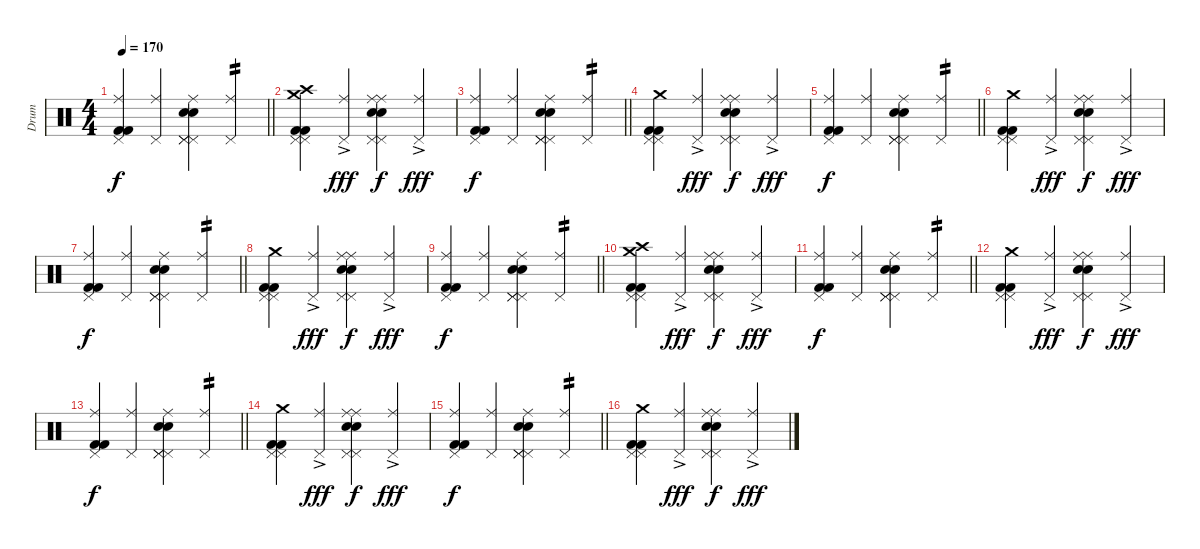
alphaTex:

\track ("Drum" "Drum") {instrument percussion}
\staff {score}
\articulation defaults
\ts (4 4)
\tempo 170
\clef neutral
\barLineRight lightlight
\ks c
("Kick (hit) 2" "Kick (hit) 2" "Ride (middle)" "Pedal Hi-Hat (hit)").4{dy f} ("Ride (middle)" "Pedal Hi-Hat (hit)").4 ("Electric Snare (hit)" "Electric Snare (hit)" "Pedal Hi-Hat (hit)" "Pedal Hi-Hat (hit)" "Ride (middle)" "Pedal Hi-Hat (hit)").4 ("Ride (middle)" "Pedal Hi-Hat (hit)").4{tp 2} |
("Crash high (hit)" "Crash medium (hit)" "Kick (hit) 2" "Kick (hit) 2" "Pedal Hi-Hat (hit)" "Pedal Hi-Hat (hit)").4 ("Ride (middle)"{ac} "Pedal Hi-Hat (hit)"{ac}).4{dy fff} ("Electric Snare (hit)" "Electric Snare (hit)" "Pedal Hi-Hat (hit)" "Pedal Hi-Hat (hit)" "Ride (middle)" "Ride (middle)").4{dy f} ("Ride (middle)"{ac} "Pedal Hi-Hat (hit)"{ac}).4{dy fff} |
\barLineRight lightlight
("Kick (hit) 2" "Kick (hit) 2" "Ride (middle)" "Pedal Hi-Hat (hit)").4{dy f} ("Ride (middle)" "Pedal Hi-Hat (hit)").4 ("Electric Snare (hit)" "Electric Snare (hit)" "Pedal Hi-Hat (hit)" "Pedal Hi-Hat (hit)" "Ride (middle)" "Pedal Hi-Hat (hit)").4 ("Ride (middle)" "Pedal Hi-Hat (hit)").4{tp 2} |
("Crash medium (hit)" "Kick (hit) 2" "Kick (hit) 2" "Pedal Hi-Hat (hit)" "Pedal Hi-Hat (hit)").4 ("Ride (middle)"{ac} "Pedal Hi-Hat (hit)"{ac}).4{dy fff} ("Electric Snare (hit)" "Electric Snare (hit)" "Pedal Hi-Hat (hit)" "Pedal Hi-Hat (hit)" "Ride (middle)" "Ride (middle)").4{dy f} ("Ride (middle)"{ac} "Pedal Hi-Hat (hit)"{ac}).4{dy fff} |
\barLineRight lightlight
("Kick (hit) 2" "Kick (hit) 2" "Ride (middle)" "Pedal Hi-Hat (hit)").4{dy f} ("Ride (middle)" "Pedal Hi-Hat (hit)").4 ("Electric Snare (hit)" "Electric Snare (hit)" "Pedal Hi-Hat (hit)" "Pedal Hi-Hat (hit)" "Ride (middle)" "Pedal Hi-Hat (hit)").4 ("Ride (middle)" "Pedal Hi-Hat (hit)").4{tp 2} |
("Crash medium (hit)" "Kick (hit) 2" "Kick (hit) 2" "Pedal Hi-Hat (hit)" "Pedal Hi-Hat (hit)").4 ("Ride (middle)"{ac} "Pedal Hi-Hat (hit)"{ac}).4{dy fff} ("Electric Snare (hit)" "Electric Snare (hit)" "Pedal Hi-Hat (hit)" "Pedal Hi-Hat (hit)" "Ride (middle)" "Ride (middle)").4{dy f} ("Ride (middle)"{ac} "Pedal Hi-Hat (hit)"{ac}).4{dy fff} |
\barLineRight lightlight
("Kick (hit) 2" "Kick (hit) 2" "Ride (middle)" "Pedal Hi-Hat (hit)").4{dy f} ("Ride (middle)" "Pedal Hi-Hat (hit)").4 ("Electric Snare (hit)" "Electric Snare (hit)" "Pedal Hi-Hat (hit)" "Pedal Hi-Hat (hit)" "Ride (middle)" "Pedal Hi-Hat (hit)").4 ("Ride (middle)" "Pedal Hi-Hat (hit)").4{tp 2} |
("Crash medium (hit)" "Kick (hit) 2" "Kick (hit) 2" "Pedal Hi-Hat (hit)" "Pedal Hi-Hat (hit)").4 ("Ride (middle)"{ac} "Pedal Hi-Hat (hit)"{ac}).4{dy fff} ("Electric Snare (hit)" "Electric Snare (hit)" "Pedal Hi-Hat (hit)" "Pedal Hi-Hat (hit)" "Ride (middle)" "Ride (middle)").4{dy f} ("Ride (middle)"{ac} "Pedal Hi-Hat (hit)"{ac}).4{dy fff} |
\barLineRight lightlight
("Kick (hit) 2" "Kick (hit) 2" "Ride (middle)" "Pedal Hi-Hat (hit)").4{dy f} ("Ride (middle)" "Pedal Hi-Hat (hit)").4 ("Electric Snare (hit)" "Electric Snare (hit)" "Pedal Hi-Hat (hit)" "Pedal Hi-Hat (hit)" "Ride (middle)" "Pedal Hi-Hat (hit)").4 ("Ride (middle)" "Pedal Hi-Hat (hit)").4{tp 2} |
("Crash high (hit)" "Crash medium (hit)" "Kick (hit) 2" "Kick (hit) 2" "Pedal Hi-Hat (hit)" "Pedal Hi-Hat (hit)").4 ("Ride (middle)"{ac} "Pedal Hi-Hat (hit)"{ac}).4{dy fff} ("Electric Snare (hit)" "Electric Snare (hit)" "Pedal Hi-Hat (hit)" "Pedal Hi-Hat (hit)" "Ride (middle)" "Ride (middle)").4{dy f} ("Ride (middle)"{ac} "Pedal Hi-Hat (hit)"{ac}).4{dy fff} |
\barLineRight lightlight
("Kick (hit) 2" "Kick (hit) 2" "Ride (middle)" "Pedal Hi-Hat (hit)").4{dy f} ("Ride (middle)" "Pedal Hi-Hat (hit)").4 ("Electric Snare (hit)" "Electric Snare (hit)" "Pedal Hi-Hat (hit)" "Pedal Hi-Hat (hit)" "Ride (middle)" "Pedal Hi-Hat (hit)").4 ("Ride (middle)" "Pedal Hi-Hat (hit)").4{tp 2} |
("Crash medium (hit)" "Kick (hit) 2" "Kick (hit) 2" "Pedal Hi-Hat (hit)" "Pedal Hi-Hat (hit)").4 ("Ride (middle)"{ac} "Pedal Hi-Hat (hit)"{ac}).4{dy fff} ("Electric Snare (hit)" "Electric Snare (hit)" "Pedal Hi-Hat (hit)" "Pedal Hi-Hat (hit)" "Ride (middle)" "Ride (middle)").4{dy f} ("Ride (middle)"{ac} "Pedal Hi-Hat (hit)"{ac}).4{dy fff} |
\barLineRight lightlight
("Kick (hit) 2" "Kick (hit) 2" "Ride (middle)" "Pedal Hi-Hat (hit)").4{dy f} ("Ride (middle)" "Pedal Hi-Hat (hit)").4 ("Electric Snare (hit)" "Electric Snare (hit)" "Pedal Hi-Hat (hit)" "Pedal Hi-Hat (hit)" "Ride (middle)" "Pedal Hi-Hat (hit)").4 ("Ride (middle)" "Pedal Hi-Hat (hit)").4{tp 2} |
("Crash medium (hit)" "Kick (hit) 2" "Kick (hit) 2" "Pedal Hi-Hat (hit)" "Pedal Hi-Hat (hit)").4 ("Ride (middle)"{ac} "Pedal Hi-Hat (hit)"{ac}).4{dy fff} ("Electric Snare (hit)" "Electric Snare (hit)" "Pedal Hi-Hat (hit)" "Pedal Hi-Hat (hit)" "Ride (middle)" "Ride (middle)").4{dy f} ("Ride (middle)"{ac} "Pedal Hi-Hat (hit)"{ac}).4{dy fff} |
\barLineRight lightlight
("Kick (hit) 2" "Kick (hit) 2" "Ride (middle)" "Pedal Hi-Hat (hit)").4{dy f} ("Ride (middle)" "Pedal Hi-Hat (hit)").4 ("Electric Snare (hit)" "Electric Snare (hit)" "Pedal Hi-Hat (hit)" "Pedal Hi-Hat (hit)" "Ride (middle)" "Pedal Hi-Hat (hit)").4 ("Ride (middle)" "Pedal Hi-Hat (hit)").4{tp 2} |
("Crash medium (hit)" "Kick (hit) 2" "Kick (hit) 2" "Pedal Hi-Hat (hit)" "Pedal Hi-Hat (hit)").4 ("Ride (middle)"{ac} "Pedal Hi-Hat (hit)"{ac}).4{dy fff} ("Electric Snare (hit)" "Electric Snare (hit)" "Pedal Hi-Hat (hit)" "Pedal Hi-Hat (hit)" "Ride (middle)" "Ride (middle)").4{dy f} ("Ride (middle)"{ac} "Pedal Hi-Hat (hit)"{ac}).4{dy fff}
